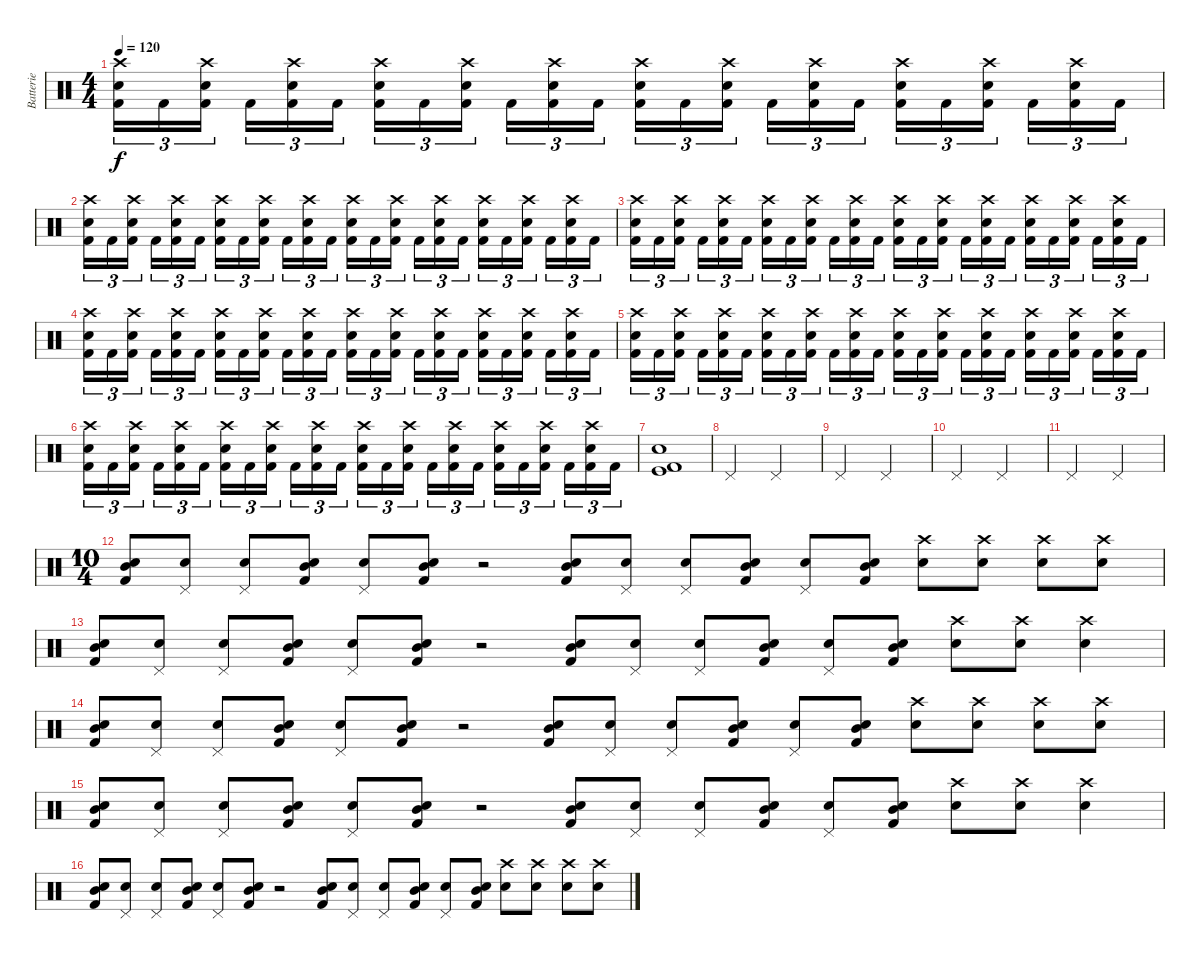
\track ("Batterie" "Batterie") {instrument percussion}
\staff {score}
\articulation defaults
\ts (4 4)
\tempo 120
\clef neutral
\ks c
("Crash high (hit)" "Snare (hit) 2" "Kick (hit) 2").16{tu (3 2) dy f} "Kick (hit) 2".16{tu (3 2)} ("Crash high (hit)" "Snare (hit) 2" "Kick (hit) 2").16{tu (3 2)} "Kick (hit) 2".16{tu (3 2)} ("Crash high (hit)" "Snare (hit) 2" "Kick (hit) 2").16{tu (3 2)} "Kick (hit) 2".16{tu (3 2)} ("Crash high (hit)" "Snare (hit) 2" "Kick (hit) 2").16{tu (3 2)} "Kick (hit) 2".16{tu (3 2)} ("Crash high (hit)" "Snare (hit) 2" "Kick (hit) 2").16{tu (3 2)} "Kick (hit) 2".16{tu (3 2)} ("Crash high (hit)" "Snare (hit) 2" "Kick (hit) 2").16{tu (3 2)} "Kick (hit) 2".16{tu (3 2)} ("Crash high (hit)" "Snare (hit) 2" "Kick (hit) 2").16{tu (3 2)} "Kick (hit) 2".16{tu (3 2)} ("Crash high (hit)" "Snare (hit) 2" "Kick (hit) 2").16{tu (3 2)} "Kick (hit) 2".16{tu (3 2)} ("Crash high (hit)" "Snare (hit) 2" "Kick (hit) 2").16{tu (3 2)} "Kick (hit) 2".16{tu (3 2)} ("Crash high (hit)" "Snare (hit) 2" "Kick (hit) 2").16{tu (3 2)} "Kick (hit) 2".16{tu (3 2)} ("Crash high (hit)" "Snare (hit) 2" "Kick (hit) 2").16{tu (3 2)} "Kick (hit) 2".16{tu (3 2)} ("Crash high (hit)" "Snare (hit) 2" "Kick (hit) 2").16{tu (3 2)} "Kick (hit) 2".16{tu (3 2)} |
("Crash high (hit)" "Snare (hit) 2" "Kick (hit) 2").16{tu (3 2)} "Kick (hit) 2".16{tu (3 2)} ("Crash high (hit)" "Snare (hit) 2" "Kick (hit) 2").16{tu (3 2)} "Kick (hit) 2".16{tu (3 2)} ("Crash high (hit)" "Snare (hit) 2" "Kick (hit) 2").16{tu (3 2)} "Kick (hit) 2".16{tu (3 2)} ("Crash high (hit)" "Snare (hit) 2" "Kick (hit) 2").16{tu (3 2)} "Kick (hit) 2".16{tu (3 2)} ("Crash high (hit)" "Snare (hit) 2" "Kick (hit) 2").16{tu (3 2)} "Kick (hit) 2".16{tu (3 2)} ("Crash high (hit)" "Snare (hit) 2" "Kick (hit) 2").16{tu (3 2)} "Kick (hit) 2".16{tu (3 2)} ("Crash high (hit)" "Snare (hit) 2" "Kick (hit) 2").16{tu (3 2)} "Kick (hit) 2".16{tu (3 2)} ("Crash high (hit)" "Snare (hit) 2" "Kick (hit) 2").16{tu (3 2)} "Kick (hit) 2".16{tu (3 2)} ("Crash high (hit)" "Snare (hit) 2" "Kick (hit) 2").16{tu (3 2)} "Kick (hit) 2".16{tu (3 2)} ("Crash high (hit)" "Snare (hit) 2" "Kick (hit) 2").16{tu (3 2)} "Kick (hit) 2".16{tu (3 2)} ("Crash high (hit)" "Snare (hit) 2" "Kick (hit) 2").16{tu (3 2)} "Kick (hit) 2".16{tu (3 2)} ("Crash high (hit)" "Snare (hit) 2" "Kick (hit) 2").16{tu (3 2)} "Kick (hit) 2".16{tu (3 2)} |
("Crash high (hit)" "Snare (hit) 2" "Kick (hit) 2").16{tu (3 2)} "Kick (hit) 2".16{tu (3 2)} ("Crash high (hit)" "Snare (hit) 2" "Kick (hit) 2").16{tu (3 2)} "Kick (hit) 2".16{tu (3 2)} ("Crash high (hit)" "Snare (hit) 2" "Kick (hit) 2").16{tu (3 2)} "Kick (hit) 2".16{tu (3 2)} ("Crash high (hit)" "Snare (hit) 2" "Kick (hit) 2").16{tu (3 2)} "Kick (hit) 2".16{tu (3 2)} ("Crash high (hit)" "Snare (hit) 2" "Kick (hit) 2").16{tu (3 2)} "Kick (hit) 2".16{tu (3 2)} ("Crash high (hit)" "Snare (hit) 2" "Kick (hit) 2").16{tu (3 2)} "Kick (hit) 2".16{tu (3 2)} ("Crash high (hit)" "Snare (hit) 2" "Kick (hit) 2").16{tu (3 2)} "Kick (hit) 2".16{tu (3 2)} ("Crash high (hit)" "Snare (hit) 2" "Kick (hit) 2").16{tu (3 2)} "Kick (hit) 2".16{tu (3 2)} ("Crash high (hit)" "Snare (hit) 2" "Kick (hit) 2").16{tu (3 2)} "Kick (hit) 2".16{tu (3 2)} ("Crash high (hit)" "Snare (hit) 2" "Kick (hit) 2").16{tu (3 2)} "Kick (hit) 2".16{tu (3 2)} ("Crash high (hit)" "Snare (hit) 2" "Kick (hit) 2").16{tu (3 2)} "Kick (hit) 2".16{tu (3 2)} ("Crash high (hit)" "Snare (hit) 2" "Kick (hit) 2").16{tu (3 2)} "Kick (hit) 2".16{tu (3 2)} |
("Crash high (hit)" "Snare (hit) 2" "Kick (hit) 2").16{tu (3 2)} "Kick (hit) 2".16{tu (3 2)} ("Crash high (hit)" "Snare (hit) 2" "Kick (hit) 2").16{tu (3 2)} "Kick (hit) 2".16{tu (3 2)} ("Crash high (hit)" "Snare (hit) 2" "Kick (hit) 2").16{tu (3 2)} "Kick (hit) 2".16{tu (3 2)} ("Crash high (hit)" "Snare (hit) 2" "Kick (hit) 2").16{tu (3 2)} "Kick (hit) 2".16{tu (3 2)} ("Crash high (hit)" "Snare (hit) 2" "Kick (hit) 2").16{tu (3 2)} "Kick (hit) 2".16{tu (3 2)} ("Crash high (hit)" "Snare (hit) 2" "Kick (hit) 2").16{tu (3 2)} "Kick (hit) 2".16{tu (3 2)} ("Crash high (hit)" "Snare (hit) 2" "Kick (hit) 2").16{tu (3 2)} "Kick (hit) 2".16{tu (3 2)} ("Crash high (hit)" "Snare (hit) 2" "Kick (hit) 2").16{tu (3 2)} "Kick (hit) 2".16{tu (3 2)} ("Crash high (hit)" "Snare (hit) 2" "Kick (hit) 2").16{tu (3 2)} "Kick (hit) 2".16{tu (3 2)} ("Crash high (hit)" "Snare (hit) 2" "Kick (hit) 2").16{tu (3 2)} "Kick (hit) 2".16{tu (3 2)} ("Crash high (hit)" "Snare (hit) 2" "Kick (hit) 2").16{tu (3 2)} "Kick (hit) 2".16{tu (3 2)} ("Crash high (hit)" "Snare (hit) 2" "Kick (hit) 2").16{tu (3 2)} "Kick (hit) 2".16{tu (3 2)} |
("Crash high (hit)" "Snare (hit) 2" "Kick (hit) 2").16{tu (3 2)} "Kick (hit) 2".16{tu (3 2)} ("Crash high (hit)" "Snare (hit) 2" "Kick (hit) 2").16{tu (3 2)} "Kick (hit) 2".16{tu (3 2)} ("Crash high (hit)" "Snare (hit) 2" "Kick (hit) 2").16{tu (3 2)} "Kick (hit) 2".16{tu (3 2)} ("Crash high (hit)" "Snare (hit) 2" "Kick (hit) 2").16{tu (3 2)} "Kick (hit) 2".16{tu (3 2)} ("Crash high (hit)" "Snare (hit) 2" "Kick (hit) 2").16{tu (3 2)} "Kick (hit) 2".16{tu (3 2)} ("Crash high (hit)" "Snare (hit) 2" "Kick (hit) 2").16{tu (3 2)} "Kick (hit) 2".16{tu (3 2)} ("Crash high (hit)" "Snare (hit) 2" "Kick (hit) 2").16{tu (3 2)} "Kick (hit) 2".16{tu (3 2)} ("Crash high (hit)" "Snare (hit) 2" "Kick (hit) 2").16{tu (3 2)} "Kick (hit) 2".16{tu (3 2)} ("Crash high (hit)" "Snare (hit) 2" "Kick (hit) 2").16{tu (3 2)} "Kick (hit) 2".16{tu (3 2)} ("Crash high (hit)" "Snare (hit) 2" "Kick (hit) 2").16{tu (3 2)} "Kick (hit) 2".16{tu (3 2)} ("Crash high (hit)" "Snare (hit) 2" "Kick (hit) 2").16{tu (3 2)} "Kick (hit) 2".16{tu (3 2)} ("Crash high (hit)" "Snare (hit) 2" "Kick (hit) 2").16{tu (3 2)} "Kick (hit) 2".16{tu (3 2)} |
("Crash high (hit)" "Snare (hit) 2" "Kick (hit) 2").16{tu (3 2)} "Kick (hit) 2".16{tu (3 2)} ("Crash high (hit)" "Snare (hit) 2" "Kick (hit) 2").16{tu (3 2)} "Kick (hit) 2".16{tu (3 2)} ("Crash high (hit)" "Snare (hit) 2" "Kick (hit) 2").16{tu (3 2)} "Kick (hit) 2".16{tu (3 2)} ("Crash high (hit)" "Snare (hit) 2" "Kick (hit) 2").16{tu (3 2)} "Kick (hit) 2".16{tu (3 2)} ("Crash high (hit)" "Snare (hit) 2" "Kick (hit) 2").16{tu (3 2)} "Kick (hit) 2".16{tu (3 2)} ("Crash high (hit)" "Snare (hit) 2" "Kick (hit) 2").16{tu (3 2)} "Kick (hit) 2".16{tu (3 2)} ("Crash high (hit)" "Snare (hit) 2" "Kick (hit) 2").16{tu (3 2)} "Kick (hit) 2".16{tu (3 2)} ("Crash high (hit)" "Snare (hit) 2" "Kick (hit) 2").16{tu (3 2)} "Kick (hit) 2".16{tu (3 2)} ("Crash high (hit)" "Snare (hit) 2" "Kick (hit) 2").16{tu (3 2)} "Kick (hit) 2".16{tu (3 2)} ("Crash high (hit)" "Snare (hit) 2" "Kick (hit) 2").16{tu (3 2)} "Kick (hit) 2".16{tu (3 2)} ("Crash high (hit)" "Snare (hit) 2" "Kick (hit) 2").16{tu (3 2)} "Kick (hit) 2".16{tu (3 2)} ("Crash high (hit)" "Snare (hit) 2" "Kick (hit) 2").16{tu (3 2)} "Kick (hit) 2".16{tu (3 2)} |
("Snare (hit) 2" "Kick (hit)" "Kick (hit) 2").1 |
"Pedal Hi-Hat (hit)".2 "Pedal Hi-Hat (hit)".2 |
"Pedal Hi-Hat (hit)".2 "Pedal Hi-Hat (hit)".2 |
"Pedal Hi-Hat (hit)".2 "Pedal Hi-Hat (hit)".2 |
"Pedal Hi-Hat (hit)".2 "Pedal Hi-Hat (hit)".2 |
\ts (10 4)
("Snare (hit) 2" "Mid Tom (hit)" "Kick (hit) 2").8 ("Pedal Hi-Hat (hit)" "Snare (hit) 2").8 ("Pedal Hi-Hat (hit)" "Snare (hit) 2").8 ("Snare (hit) 2" "Mid Tom (hit)" "Kick (hit) 2").8 ("Pedal Hi-Hat (hit)" "Snare (hit) 2").8 ("Snare (hit) 2" "Mid Tom (hit)" "Kick (hit) 2").8 r.2 ("Snare (hit) 2" "Mid Tom (hit)" "Kick (hit) 2").8 ("Pedal Hi-Hat (hit)" "Snare (hit) 2").8 ("Pedal Hi-Hat (hit)" "Snare (hit) 2").8 ("Snare (hit) 2" "Mid Tom (hit)" "Kick (hit) 2").8 ("Pedal Hi-Hat (hit)" "Snare (hit) 2").8 ("Snare (hit) 2" "Mid Tom (hit)" "Kick (hit) 2").8 ("Crash high (hit)" "Snare (hit) 2").8 ("Crash high (hit)" "Snare (hit) 2").8 ("Crash high (hit)" "Snare (hit) 2").8 ("Crash high (hit)" "Snare (hit) 2").8 |
("Snare (hit) 2" "Mid Tom (hit)" "Kick (hit) 2").8 ("Pedal Hi-Hat (hit)" "Snare (hit) 2").8 ("Pedal Hi-Hat (hit)" "Snare (hit) 2").8 ("Snare (hit) 2" "Mid Tom (hit)" "Kick (hit) 2").8 ("Pedal Hi-Hat (hit)" "Snare (hit) 2").8 ("Snare (hit) 2" "Mid Tom (hit)" "Kick (hit) 2").8 r.2 ("Snare (hit) 2" "Mid Tom (hit)" "Kick (hit) 2").8 ("Pedal Hi-Hat (hit)" "Snare (hit) 2").8 ("Pedal Hi-Hat (hit)" "Snare (hit) 2").8 ("Snare (hit) 2" "Mid Tom (hit)" "Kick (hit) 2").8 ("Pedal Hi-Hat (hit)" "Snare (hit) 2").8 ("Snare (hit) 2" "Mid Tom (hit)" "Kick (hit) 2").8 ("Crash high (hit)" "Snare (hit) 2").8 ("Crash high (hit)" "Snare (hit) 2").8 ("Crash high (hit)" "Snare (hit) 2").4 |
("Snare (hit) 2" "Mid Tom (hit)" "Kick (hit) 2").8 ("Pedal Hi-Hat (hit)" "Snare (hit) 2").8 ("Pedal Hi-Hat (hit)" "Snare (hit) 2").8 ("Snare (hit) 2" "Mid Tom (hit)" "Kick (hit) 2").8 ("Pedal Hi-Hat (hit)" "Snare (hit) 2").8 ("Snare (hit) 2" "Mid Tom (hit)" "Kick (hit) 2").8 r.2 ("Snare (hit) 2" "Mid Tom (hit)" "Kick (hit) 2").8 ("Pedal Hi-Hat (hit)" "Snare (hit) 2").8 ("Pedal Hi-Hat (hit)" "Snare (hit) 2").8 ("Snare (hit) 2" "Mid Tom (hit)" "Kick (hit) 2").8 ("Pedal Hi-Hat (hit)" "Snare (hit) 2").8 ("Snare (hit) 2" "Mid Tom (hit)" "Kick (hit) 2").8 ("Crash high (hit)" "Snare (hit) 2").8 ("Crash high (hit)" "Snare (hit) 2").8 ("Crash high (hit)" "Snare (hit) 2").8 ("Crash high (hit)" "Snare (hit) 2").8 |
("Snare (hit) 2" "Mid Tom (hit)" "Kick (hit) 2").8 ("Pedal Hi-Hat (hit)" "Snare (hit) 2").8 ("Pedal Hi-Hat (hit)" "Snare (hit) 2").8 ("Snare (hit) 2" "Mid Tom (hit)" "Kick (hit) 2").8 ("Pedal Hi-Hat (hit)" "Snare (hit) 2").8 ("Snare (hit) 2" "Mid Tom (hit)" "Kick (hit) 2").8 r.2 ("Snare (hit) 2" "Mid Tom (hit)" "Kick (hit) 2").8 ("Pedal Hi-Hat (hit)" "Snare (hit) 2").8 ("Pedal Hi-Hat (hit)" "Snare (hit) 2").8 ("Snare (hit) 2" "Mid Tom (hit)" "Kick (hit) 2").8 ("Pedal Hi-Hat (hit)" "Snare (hit) 2").8 ("Snare (hit) 2" "Mid Tom (hit)" "Kick (hit) 2").8 ("Crash high (hit)" "Snare (hit) 2").8 ("Crash high (hit)" "Snare (hit) 2").8 ("Crash high (hit)" "Snare (hit) 2").4 |
("Snare (hit) 2" "Mid Tom (hit)" "Kick (hit) 2").8 ("Pedal Hi-Hat (hit)" "Snare (hit) 2").8 ("Pedal Hi-Hat (hit)" "Snare (hit) 2").8 ("Snare (hit) 2" "Mid Tom (hit)" "Kick (hit) 2").8 ("Pedal Hi-Hat (hit)" "Snare (hit) 2").8 ("Snare (hit) 2" "Mid Tom (hit)" "Kick (hit) 2").8 r.2 ("Snare (hit) 2" "Mid Tom (hit)" "Kick (hit) 2").8 ("Pedal Hi-Hat (hit)" "Snare (hit) 2").8 ("Pedal Hi-Hat (hit)" "Snare (hit) 2").8 ("Snare (hit) 2" "Mid Tom (hit)" "Kick (hit) 2").8 ("Pedal Hi-Hat (hit)" "Snare (hit) 2").8 ("Snare (hit) 2" "Mid Tom (hit)" "Kick (hit) 2").8 ("Crash high (hit)" "Snare (hit) 2").8 ("Crash high (hit)" "Snare (hit) 2").8 ("Crash high (hit)" "Snare (hit) 2").8 ("Crash high (hit)" "Snare (hit) 2").8
